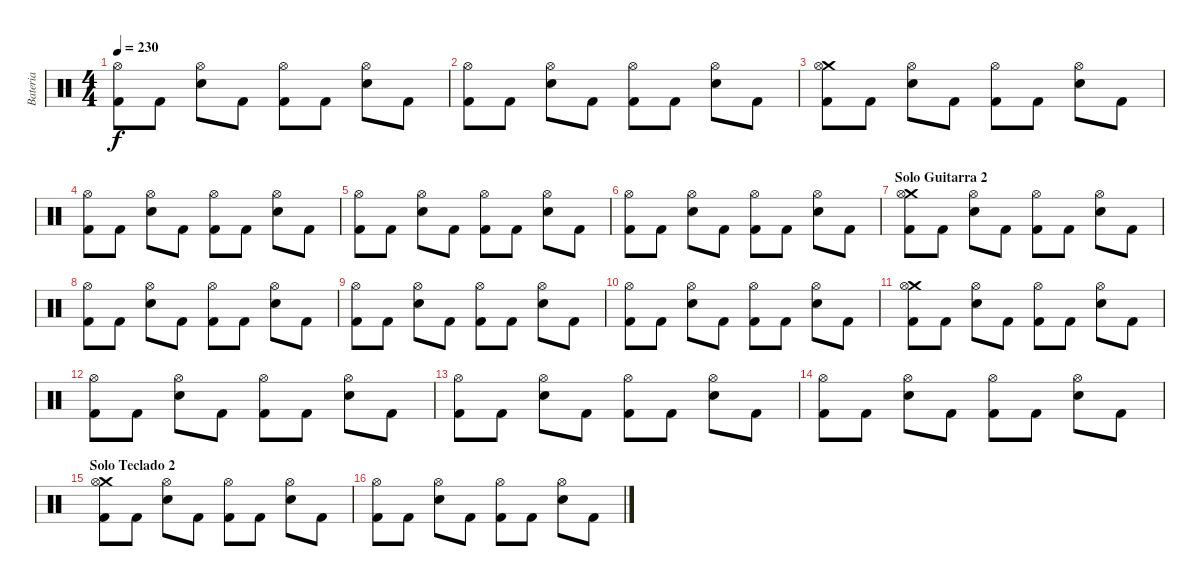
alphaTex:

\track ("Bateria" "Bateria") {instrument percussion}
\staff {score}
\articulation defaults
\ts (4 4)
\tempo 230
\clef neutral
\ks c
("Hi-Hat (open)" "Kick (hit) 2").8{dy f} "Kick (hit) 2".8 ("Hi-Hat (open)" "Snare (hit) 2").8 "Kick (hit) 2".8 ("Hi-Hat (open)" "Kick (hit) 2").8 "Kick (hit) 2".8 ("Hi-Hat (open)" "Snare (hit) 2").8 "Kick (hit) 2".8 |
("Hi-Hat (open)" "Kick (hit) 2").8 "Kick (hit) 2".8 ("Hi-Hat (open)" "Snare (hit) 2").8 "Kick (hit) 2".8 ("Hi-Hat (open)" "Kick (hit) 2").8 "Kick (hit) 2".8 ("Hi-Hat (open)" "Snare (hit) 2").8 "Kick (hit) 2".8 |
("Crash medium (hit)" "Hi-Hat (open)" "Kick (hit) 2").8 "Kick (hit) 2".8 ("Hi-Hat (open)" "Snare (hit) 2").8 "Kick (hit) 2".8 ("Hi-Hat (open)" "Kick (hit) 2").8 "Kick (hit) 2".8 ("Hi-Hat (open)" "Snare (hit) 2").8 "Kick (hit) 2".8 |
("Hi-Hat (open)" "Kick (hit) 2").8 "Kick (hit) 2".8 ("Hi-Hat (open)" "Snare (hit) 2").8 "Kick (hit) 2".8 ("Hi-Hat (open)" "Kick (hit) 2").8 "Kick (hit) 2".8 ("Hi-Hat (open)" "Snare (hit) 2").8 "Kick (hit) 2".8 |
("Hi-Hat (open)" "Kick (hit) 2").8 "Kick (hit) 2".8 ("Hi-Hat (open)" "Snare (hit) 2").8 "Kick (hit) 2".8 ("Hi-Hat (open)" "Kick (hit) 2").8 "Kick (hit) 2".8 ("Hi-Hat (open)" "Snare (hit) 2").8 "Kick (hit) 2".8 |
("Hi-Hat (open)" "Kick (hit) 2").8 "Kick (hit) 2".8 ("Hi-Hat (open)" "Snare (hit) 2").8 "Kick (hit) 2".8 ("Hi-Hat (open)" "Kick (hit) 2").8 "Kick (hit) 2".8 ("Hi-Hat (open)" "Snare (hit) 2").8 "Kick (hit) 2".8 |
\section ("" "Solo Guitarra 2")
("Crash medium (hit)" "Hi-Hat (open)" "Kick (hit) 2").8 "Kick (hit) 2".8 ("Hi-Hat (open)" "Snare (hit) 2").8 "Kick (hit) 2".8 ("Hi-Hat (open)" "Kick (hit) 2").8 "Kick (hit) 2".8 ("Hi-Hat (open)" "Snare (hit) 2").8 "Kick (hit) 2".8 |
("Hi-Hat (open)" "Kick (hit) 2").8 "Kick (hit) 2".8 ("Hi-Hat (open)" "Snare (hit) 2").8 "Kick (hit) 2".8 ("Hi-Hat (open)" "Kick (hit) 2").8 "Kick (hit) 2".8 ("Hi-Hat (open)" "Snare (hit) 2").8 "Kick (hit) 2".8 |
("Hi-Hat (open)" "Kick (hit) 2").8 "Kick (hit) 2".8 ("Hi-Hat (open)" "Snare (hit) 2").8 "Kick (hit) 2".8 ("Hi-Hat (open)" "Kick (hit) 2").8 "Kick (hit) 2".8 ("Hi-Hat (open)" "Snare (hit) 2").8 "Kick (hit) 2".8 |
("Hi-Hat (open)" "Kick (hit) 2").8 "Kick (hit) 2".8 ("Hi-Hat (open)" "Snare (hit) 2").8 "Kick (hit) 2".8 ("Hi-Hat (open)" "Kick (hit) 2").8 "Kick (hit) 2".8 ("Hi-Hat (open)" "Snare (hit) 2").8 "Kick (hit) 2".8 |
("Crash medium (hit)" "Hi-Hat (open)" "Kick (hit) 2").8 "Kick (hit) 2".8 ("Hi-Hat (open)" "Snare (hit) 2").8 "Kick (hit) 2".8 ("Hi-Hat (open)" "Kick (hit) 2").8 "Kick (hit) 2".8 ("Hi-Hat (open)" "Snare (hit) 2").8 "Kick (hit) 2".8 |
("Hi-Hat (open)" "Kick (hit) 2").8 "Kick (hit) 2".8 ("Hi-Hat (open)" "Snare (hit) 2").8 "Kick (hit) 2".8 ("Hi-Hat (open)" "Kick (hit) 2").8 "Kick (hit) 2".8 ("Hi-Hat (open)" "Snare (hit) 2").8 "Kick (hit) 2".8 |
("Hi-Hat (open)" "Kick (hit) 2").8 "Kick (hit) 2".8 ("Hi-Hat (open)" "Snare (hit) 2").8 "Kick (hit) 2".8 ("Hi-Hat (open)" "Kick (hit) 2").8 "Kick (hit) 2".8 ("Hi-Hat (open)" "Snare (hit) 2").8 "Kick (hit) 2".8 |
("Hi-Hat (open)" "Kick (hit) 2").8 "Kick (hit) 2".8 ("Hi-Hat (open)" "Snare (hit) 2").8 "Kick (hit) 2".8 ("Hi-Hat (open)" "Kick (hit) 2").8 "Kick (hit) 2".8 ("Hi-Hat (open)" "Snare (hit) 2").8 "Kick (hit) 2".8 |
\section ("" "Solo Teclado 2")
("Crash medium (hit)" "Hi-Hat (open)" "Kick (hit) 2").8 "Kick (hit) 2".8 ("Hi-Hat (open)" "Snare (hit) 2").8 "Kick (hit) 2".8 ("Hi-Hat (open)" "Kick (hit) 2").8 "Kick (hit) 2".8 ("Hi-Hat (open)" "Snare (hit) 2").8 "Kick (hit) 2".8 |
("Hi-Hat (open)" "Kick (hit) 2").8 "Kick (hit) 2".8 ("Hi-Hat (open)" "Snare (hit) 2").8 "Kick (hit) 2".8 ("Hi-Hat (open)" "Kick (hit) 2").8 "Kick (hit) 2".8 ("Hi-Hat (open)" "Snare (hit) 2").8 "Kick (hit) 2".8
